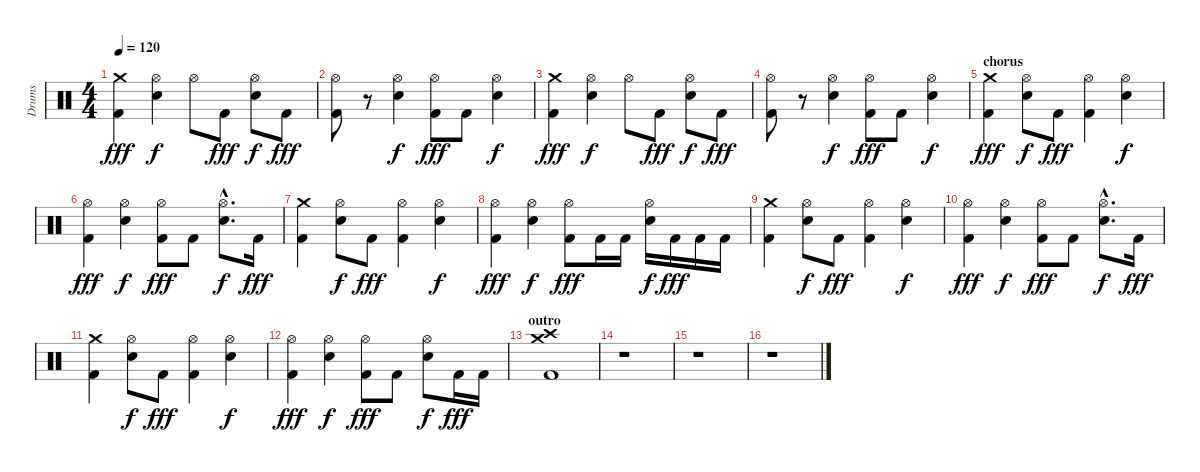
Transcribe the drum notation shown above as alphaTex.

\track ("Drums" "Drums") {instrument percussion}
\staff {score}
\articulation defaults
\ts (4 4)
\tempo 120
\clef neutral
\ks c
("Crash medium (hit)" "Kick (hit) 2").4{dy fff} ("Hi-Hat (open)" "Electric Snare (hit)").4{dy f} "Hi-Hat (open)".8 "Kick (hit) 2".8{dy fff} ("Hi-Hat (open)" "Electric Snare (hit)").8{dy f} "Kick (hit) 2".8{dy fff} |
("Hi-Hat (open)" "Kick (hit) 2").8 r.8 ("Hi-Hat (open)" "Electric Snare (hit)").4{dy f} ("Hi-Hat (open)" "Kick (hit) 2").8{dy fff} "Kick (hit) 2".8 ("Hi-Hat (open)" "Electric Snare (hit)").4{dy f} |
("Crash medium (hit)" "Kick (hit) 2").4{dy fff} ("Hi-Hat (open)" "Electric Snare (hit)").4{dy f} "Hi-Hat (open)".8 "Kick (hit) 2".8{dy fff} ("Hi-Hat (open)" "Electric Snare (hit)").8{dy f} "Kick (hit) 2".8{dy fff} |
("Hi-Hat (open)" "Kick (hit) 2").8 r.8 ("Hi-Hat (open)" "Electric Snare (hit)").4{dy f} ("Hi-Hat (open)" "Kick (hit) 2").8{dy fff} "Kick (hit) 2".8 ("Hi-Hat (open)" "Electric Snare (hit)").4{dy f} |
\section ("" "chorus")
("Crash medium (hit)" "Kick (hit) 2").4{dy fff} ("Hi-Hat (open)" "Electric Snare (hit)").8{dy f} "Kick (hit) 2".8{dy fff} ("Hi-Hat (open)" "Kick (hit) 2").4 ("Hi-Hat (open)" "Electric Snare (hit)").4{dy f} |
("Hi-Hat (open)" "Kick (hit) 2").4{dy fff} ("Hi-Hat (open)" "Electric Snare (hit)").4{dy f} ("Hi-Hat (open)" "Kick (hit) 2").8{dy fff} "Kick (hit) 2".8 ("Hi-Hat (open)"{hac} "Electric Snare (hit)"{hac}).8{d dy f} "Kick (hit) 2".16{dy fff} |
("Crash medium (hit)" "Kick (hit) 2").4 ("Hi-Hat (open)" "Electric Snare (hit)").8{dy f} "Kick (hit) 2".8{dy fff} ("Hi-Hat (open)" "Kick (hit) 2").4 ("Hi-Hat (open)" "Electric Snare (hit)").4{dy f} |
("Hi-Hat (open)" "Kick (hit) 2").4{dy fff} ("Hi-Hat (open)" "Electric Snare (hit)").4{dy f} ("Hi-Hat (open)" "Kick (hit) 2").8{dy fff} "Kick (hit) 2".16 "Kick (hit) 2".16 ("Hi-Hat (open)" "Electric Snare (hit)").16{dy f} "Kick (hit) 2".16{dy fff} "Kick (hit) 2".16 "Kick (hit) 2".16 |
("Crash medium (hit)" "Kick (hit) 2").4 ("Hi-Hat (open)" "Electric Snare (hit)").8{dy f} "Kick (hit) 2".8{dy fff} ("Hi-Hat (open)" "Kick (hit) 2").4 ("Hi-Hat (open)" "Electric Snare (hit)").4{dy f} |
("Hi-Hat (open)" "Kick (hit) 2").4{dy fff} ("Hi-Hat (open)" "Electric Snare (hit)").4{dy f} ("Hi-Hat (open)" "Kick (hit) 2").8{dy fff} "Kick (hit) 2".8 ("Hi-Hat (open)"{hac} "Electric Snare (hit)"{hac}).8{d dy f} "Kick (hit) 2".16{dy fff} |
("Crash medium (hit)" "Kick (hit) 2").4 ("Hi-Hat (open)" "Electric Snare (hit)").8{dy f} "Kick (hit) 2".8{dy fff} ("Hi-Hat (open)" "Kick (hit) 2").4 ("Hi-Hat (open)" "Electric Snare (hit)").4{dy f} |
("Hi-Hat (open)" "Kick (hit) 2").4{dy fff} ("Hi-Hat (open)" "Electric Snare (hit)").4{dy f} ("Hi-Hat (open)" "Kick (hit) 2").8{dy fff} "Kick (hit) 2".8 ("Hi-Hat (open)" "Electric Snare (hit)").8{dy f} "Kick (hit) 2".16{dy fff} "Kick (hit) 2".16 |
\section ("" "outro")
("Crash medium (hit)" "Crash high (hit)" "Kick (hit) 2").1 |
r.1 |
r.1 |
r.1
